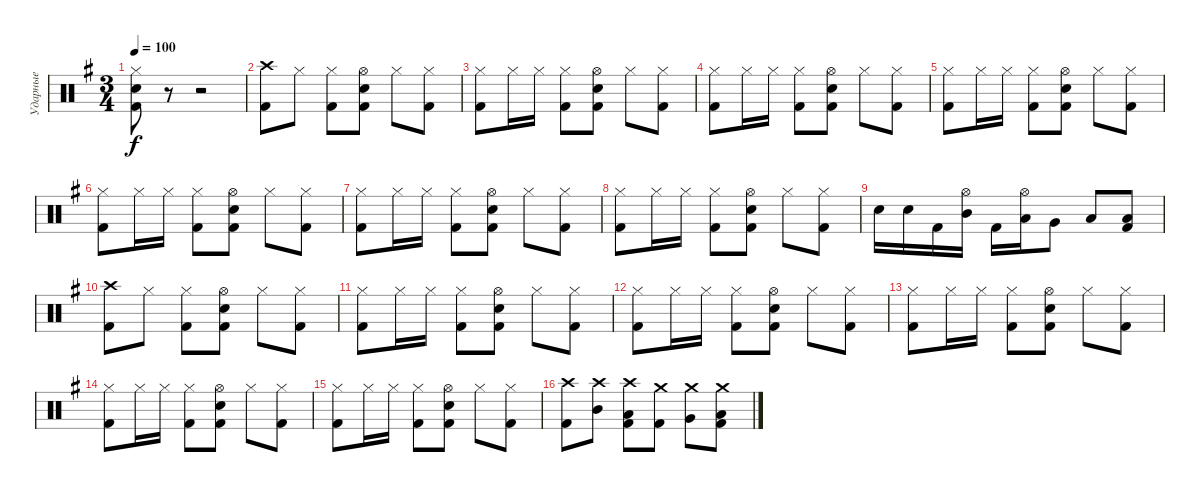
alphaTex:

\track ("Ударные" "Ударные") {instrument percussion}
\staff {score}
\articulation defaults
\ts (3 4)
\tempo 100
\clef neutral
\ks eminor
("Snare (hit) 2" "Kick (hit) 2" "Hi-Hat (closed)").8{dy f} r.8 r.2 |
("Kick (hit) 2" "Crash high (hit)").8 "Hi-Hat (closed)".8 ("Kick (hit) 2" "Hi-Hat (closed)").8 ("Snare (hit) 2" "Kick (hit) 2" "Hi-Hat (open)").8 "Hi-Hat (closed)".8 ("Kick (hit) 2" "Hi-Hat (closed)").8 |
("Kick (hit) 2" "Hi-Hat (closed)").8 "Hi-Hat (closed)".16 "Hi-Hat (closed)".16 ("Kick (hit) 2" "Hi-Hat (closed)").8 ("Snare (hit) 2" "Kick (hit) 2" "Hi-Hat (open)").8 "Hi-Hat (closed)".8 ("Kick (hit) 2" "Hi-Hat (closed)").8 |
("Kick (hit) 2" "Hi-Hat (closed)").8 "Hi-Hat (closed)".16 "Hi-Hat (closed)".16 ("Kick (hit) 2" "Hi-Hat (closed)").8 ("Snare (hit) 2" "Kick (hit) 2" "Hi-Hat (open)").8 "Hi-Hat (closed)".8 ("Kick (hit) 2" "Hi-Hat (closed)").8 |
("Kick (hit) 2" "Hi-Hat (closed)").8 "Hi-Hat (closed)".16 "Hi-Hat (closed)".16 ("Kick (hit) 2" "Hi-Hat (closed)").8 ("Snare (hit) 2" "Kick (hit) 2" "Hi-Hat (open)").8 "Hi-Hat (closed)".8 ("Kick (hit) 2" "Hi-Hat (closed)").8 |
("Kick (hit) 2" "Hi-Hat (closed)").8 "Hi-Hat (closed)".16 "Hi-Hat (closed)".16 ("Kick (hit) 2" "Hi-Hat (closed)").8 ("Snare (hit) 2" "Kick (hit) 2" "Hi-Hat (open)").8 "Hi-Hat (closed)".8 ("Kick (hit) 2" "Hi-Hat (closed)").8 |
("Kick (hit) 2" "Hi-Hat (closed)").8 "Hi-Hat (closed)".16 "Hi-Hat (closed)".16 ("Kick (hit) 2" "Hi-Hat (closed)").8 ("Snare (hit) 2" "Kick (hit) 2" "Hi-Hat (open)").8 "Hi-Hat (closed)".8 ("Kick (hit) 2" "Hi-Hat (closed)").8 |
("Kick (hit) 2" "Hi-Hat (closed)").8 "Hi-Hat (closed)".16 "Hi-Hat (closed)".16 ("Kick (hit) 2" "Hi-Hat (closed)").8 ("Snare (hit) 2" "Kick (hit) 2" "Hi-Hat (open)").8 "Hi-Hat (closed)".8 ("Kick (hit) 2" "Hi-Hat (closed)").8 |
"Snare (hit) 2".16 "Snare (hit) 2".16 "Kick (hit) 2".16 ("Mid Tom (hit)" "Hi-Hat (open)").16 "Kick (hit) 2".16 ("Low Tom (hit)" "Hi-Hat (open)").16 "Very Low Tom (hit)".8 "Low Floor Tom (hit)".8 ("Low Floor Tom (hit)" "Kick (hit) 2").8 |
("Kick (hit) 2" "Crash high (hit)").8 "Hi-Hat (closed)".8 ("Kick (hit) 2" "Hi-Hat (closed)").8 ("Snare (hit) 2" "Kick (hit) 2" "Hi-Hat (open)").8 "Hi-Hat (closed)".8 ("Kick (hit) 2" "Hi-Hat (closed)").8 |
("Kick (hit) 2" "Hi-Hat (closed)").8 "Hi-Hat (closed)".16 "Hi-Hat (closed)".16 ("Kick (hit) 2" "Hi-Hat (closed)").8 ("Snare (hit) 2" "Kick (hit) 2" "Hi-Hat (open)").8 "Hi-Hat (closed)".8 ("Kick (hit) 2" "Hi-Hat (closed)").8 |
("Kick (hit) 2" "Hi-Hat (closed)").8 "Hi-Hat (closed)".16 "Hi-Hat (closed)".16 ("Kick (hit) 2" "Hi-Hat (closed)").8 ("Snare (hit) 2" "Kick (hit) 2" "Hi-Hat (open)").8 "Hi-Hat (closed)".8 ("Kick (hit) 2" "Hi-Hat (closed)").8 |
("Kick (hit) 2" "Hi-Hat (closed)").8 "Hi-Hat (closed)".16 "Hi-Hat (closed)".16 ("Kick (hit) 2" "Hi-Hat (closed)").8 ("Snare (hit) 2" "Kick (hit) 2" "Hi-Hat (open)").8 "Hi-Hat (closed)".8 ("Kick (hit) 2" "Hi-Hat (closed)").8 |
("Kick (hit) 2" "Hi-Hat (closed)").8 "Hi-Hat (closed)".16 "Hi-Hat (closed)".16 ("Kick (hit) 2" "Hi-Hat (closed)").8 ("Snare (hit) 2" "Kick (hit) 2" "Hi-Hat (open)").8 "Hi-Hat (closed)".8 ("Kick (hit) 2" "Hi-Hat (closed)").8 |
("Kick (hit) 2" "Hi-Hat (closed)").8 "Hi-Hat (closed)".16 "Hi-Hat (closed)".16 ("Kick (hit) 2" "Hi-Hat (closed)").8 ("Snare (hit) 2" "Kick (hit) 2" "Hi-Hat (open)").8 "Hi-Hat (closed)".8 ("Kick (hit) 2" "Hi-Hat (closed)").8 |
("Kick (hit) 2" "Crash high (hit)").8 ("Mid Tom (hit)" "Crash high (hit)").8 ("Low Tom (hit)" "Kick (hit) 2" "Crash high (hit)").8 ("Kick (hit) 2" "Crash medium (hit)").8 ("Very Low Tom (hit)" "Crash medium (hit)").8 ("Low Floor Tom (hit)" "Kick (hit) 2" "Crash medium (hit)").8
